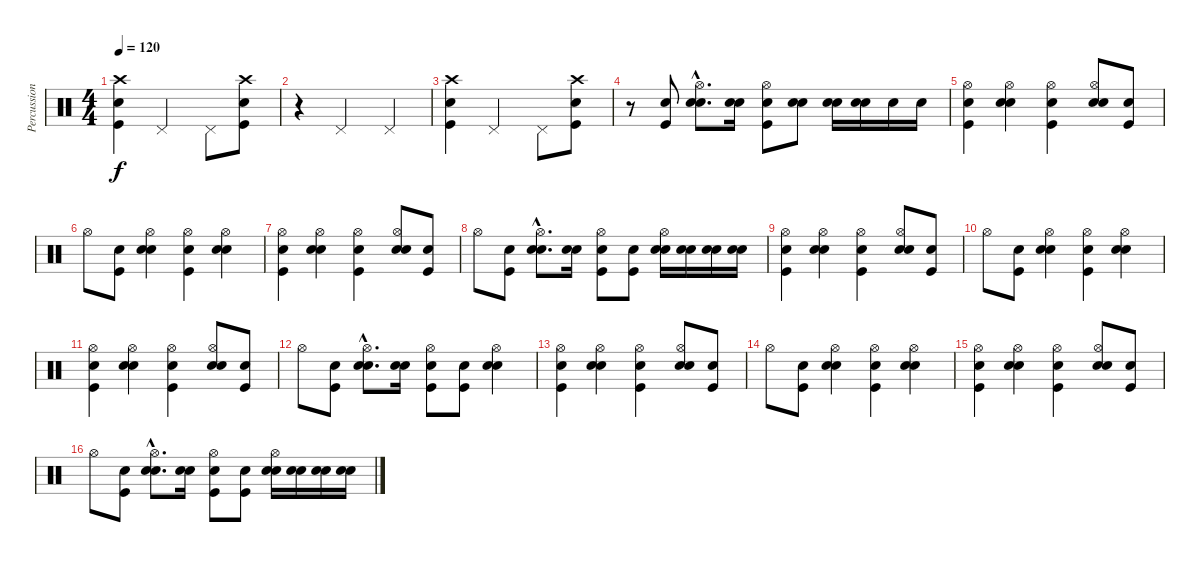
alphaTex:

\track ("Percussions" "Percussion") {instrument percussion}
\staff {score}
\articulation defaults
\ts (4 4)
\tempo 120
\clef neutral
\ks c
("Crash high (hit)" "Snare (hit) 2" "Kick (hit)").4{dy f} "Pedal Hi-Hat (hit)".2 "Pedal Hi-Hat (hit)".8 ("Crash high (hit)" "Snare (hit) 2" "Kick (hit)").8 |
r.4 "Pedal Hi-Hat (hit)".2 "Pedal Hi-Hat (hit)".4 |
("Crash high (hit)" "Snare (hit) 2" "Kick (hit)").4 "Pedal Hi-Hat (hit)".2 "Pedal Hi-Hat (hit)".8 ("Crash high (hit)" "Snare (hit) 2" "Kick (hit)").8 |
r.8 ("Snare (hit) 2" "Kick (hit)").8 ("Hi-Hat (open)"{hac} "Snare (hit) 2"{hac} "Electric Snare (hit)"{hac}).8{d} ("Snare (hit) 2" "Electric Snare (hit)").16 ("Hi-Hat (open)" "Snare (hit) 2" "Kick (hit)").8 ("Snare (hit) 2" "Electric Snare (hit)").8 ("Snare (hit) 2" "Electric Snare (hit)").16 ("Snare (hit) 2" "Electric Snare (hit)").16 "Snare (hit) 2".16 "Snare (hit) 2".16 |
("Hi-Hat (open)" "Snare (hit) 2" "Kick (hit)").4 ("Hi-Hat (open)" "Snare (hit) 2" "Electric Snare (hit)").4 ("Hi-Hat (open)" "Snare (hit) 2" "Kick (hit)").4 ("Hi-Hat (open)" "Snare (hit) 2" "Electric Snare (hit)").8 ("Snare (hit) 2" "Kick (hit)").8 |
"Hi-Hat (open)".8 ("Snare (hit) 2" "Kick (hit)").8 ("Hi-Hat (open)" "Snare (hit) 2" "Electric Snare (hit)").4 ("Hi-Hat (open)" "Snare (hit) 2" "Kick (hit)").4 ("Hi-Hat (open)" "Snare (hit) 2" "Electric Snare (hit)").4 |
("Hi-Hat (open)" "Snare (hit) 2" "Kick (hit)").4 ("Hi-Hat (open)" "Snare (hit) 2" "Electric Snare (hit)").4 ("Hi-Hat (open)" "Snare (hit) 2" "Kick (hit)").4 ("Hi-Hat (open)" "Snare (hit) 2" "Electric Snare (hit)").8 ("Snare (hit) 2" "Kick (hit)").8 |
"Hi-Hat (open)".8 ("Snare (hit) 2" "Kick (hit)").8 ("Hi-Hat (open)"{hac} "Snare (hit) 2"{hac} "Electric Snare (hit)"{hac}).8{d} ("Snare (hit) 2" "Electric Snare (hit)").16 ("Hi-Hat (open)" "Snare (hit) 2" "Kick (hit)").8 ("Snare (hit) 2" "Kick (hit)").8 ("Hi-Hat (open)" "Snare (hit) 2" "Electric Snare (hit)").16 ("Snare (hit) 2" "Electric Snare (hit)").16 ("Snare (hit) 2" "Electric Snare (hit)").16 ("Snare (hit) 2" "Electric Snare (hit)").16 |
("Hi-Hat (open)" "Snare (hit) 2" "Kick (hit)").4 ("Hi-Hat (open)" "Snare (hit) 2" "Electric Snare (hit)").4 ("Hi-Hat (open)" "Snare (hit) 2" "Kick (hit)").4 ("Hi-Hat (open)" "Snare (hit) 2" "Electric Snare (hit)").8 ("Snare (hit) 2" "Kick (hit)").8 |
"Hi-Hat (open)".8 ("Snare (hit) 2" "Kick (hit)").8 ("Hi-Hat (open)" "Snare (hit) 2" "Electric Snare (hit)").4 ("Hi-Hat (open)" "Snare (hit) 2" "Kick (hit)").4 ("Hi-Hat (open)" "Snare (hit) 2" "Electric Snare (hit)").4 |
("Hi-Hat (open)" "Snare (hit) 2" "Kick (hit)").4 ("Hi-Hat (open)" "Snare (hit) 2" "Electric Snare (hit)").4 ("Hi-Hat (open)" "Snare (hit) 2" "Kick (hit)").4 ("Hi-Hat (open)" "Snare (hit) 2" "Electric Snare (hit)").8 ("Snare (hit) 2" "Kick (hit)").8 |
"Hi-Hat (open)".8 ("Snare (hit) 2" "Kick (hit)").8 ("Hi-Hat (open)"{hac} "Snare (hit) 2"{hac} "Electric Snare (hit)"{hac}).8{d} ("Snare (hit) 2" "Electric Snare (hit)").16 ("Hi-Hat (open)" "Snare (hit) 2" "Kick (hit)").8 ("Snare (hit) 2" "Kick (hit)").8 ("Hi-Hat (open)" "Snare (hit) 2" "Electric Snare (hit)").4 |
("Hi-Hat (open)" "Snare (hit) 2" "Kick (hit)").4 ("Hi-Hat (open)" "Snare (hit) 2" "Electric Snare (hit)").4 ("Hi-Hat (open)" "Snare (hit) 2" "Kick (hit)").4 ("Hi-Hat (open)" "Snare (hit) 2" "Electric Snare (hit)").8 ("Snare (hit) 2" "Kick (hit)").8 |
"Hi-Hat (open)".8 ("Snare (hit) 2" "Kick (hit)").8 ("Hi-Hat (open)" "Snare (hit) 2" "Electric Snare (hit)").4 ("Hi-Hat (open)" "Snare (hit) 2" "Kick (hit)").4 ("Hi-Hat (open)" "Snare (hit) 2" "Electric Snare (hit)").4 |
("Hi-Hat (open)" "Snare (hit) 2" "Kick (hit)").4 ("Hi-Hat (open)" "Snare (hit) 2" "Electric Snare (hit)").4 ("Hi-Hat (open)" "Snare (hit) 2" "Kick (hit)").4 ("Hi-Hat (open)" "Snare (hit) 2" "Electric Snare (hit)").8 ("Snare (hit) 2" "Kick (hit)").8 |
"Hi-Hat (open)".8 ("Snare (hit) 2" "Kick (hit)").8 ("Hi-Hat (open)"{hac} "Snare (hit) 2"{hac} "Electric Snare (hit)"{hac}).8{d} ("Snare (hit) 2" "Electric Snare (hit)").16 ("Hi-Hat (open)" "Snare (hit) 2" "Kick (hit)").8 ("Snare (hit) 2" "Kick (hit)").8 ("Hi-Hat (open)" "Snare (hit) 2" "Electric Snare (hit)").16 ("Snare (hit) 2" "Electric Snare (hit)").16 ("Snare (hit) 2" "Electric Snare (hit)").16 ("Snare (hit) 2" "Electric Snare (hit)").16
